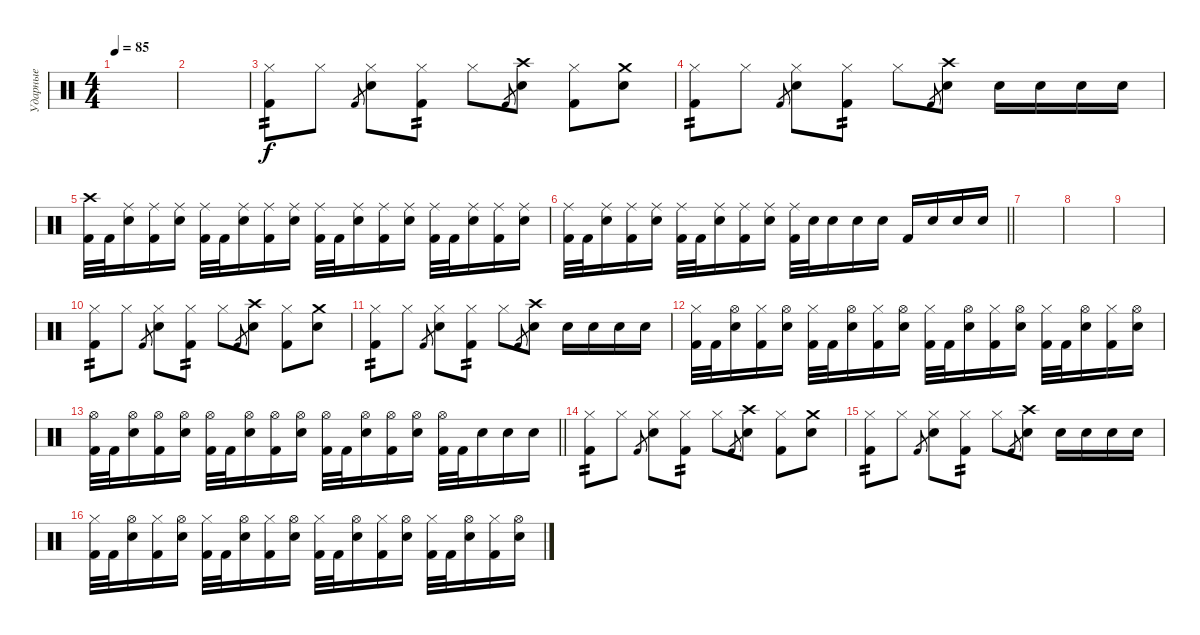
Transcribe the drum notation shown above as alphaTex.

\track ("Ударные" "Ударные") {instrument percussion}
\staff {score}
\articulation defaults
\ts (4 4)
\tempo 85
\clef neutral
\ks c
|
|
("Kick (hit) 2" "Hi-Hat (closed)").8{tp 2} "Hi-Hat (closed)".8 "Kick (hit) 2".8{gr} ("Electric Snare (hit)" "Hi-Hat (closed)").8 ("Kick (hit) 2" "Hi-Hat (closed)").8{tp 2} "Hi-Hat (closed)".8 "Kick (hit) 2".8{gr} ("Electric Snare (hit)" "Crash high (hit)").8 ("Kick (hit) 2" "Hi-Hat (closed)").8 ("Electric Snare (hit)" "Crash medium (hit)").8 |
("Kick (hit) 2" "Hi-Hat (closed)").8{tp 2} "Hi-Hat (closed)".8 "Kick (hit) 2".8{gr} ("Electric Snare (hit)" "Hi-Hat (closed)").8 ("Kick (hit) 2" "Hi-Hat (closed)").8{tp 2} "Hi-Hat (closed)".8 "Kick (hit) 2".8{gr} ("Electric Snare (hit)" "Crash high (hit)").8 "Electric Snare (hit)".16 "Electric Snare (hit)".16 "Electric Snare (hit)".16 "Electric Snare (hit)".16 |
("Kick (hit) 2" "Crash high (hit)").32 "Kick (hit) 2".32 ("Electric Snare (hit)" "Ride (middle)").16 ("Kick (hit) 2" "Ride (middle)").16 ("Electric Snare (hit)" "Ride (middle)").16 ("Kick (hit) 2" "Ride (middle)").32 "Kick (hit) 2".32 ("Electric Snare (hit)" "Ride (middle)").16 ("Kick (hit) 2" "Ride (middle)").16 ("Electric Snare (hit)" "Ride (middle)").16 ("Kick (hit) 2" "Ride (middle)").32 "Kick (hit) 2".32 ("Electric Snare (hit)" "Ride (middle)").16 ("Kick (hit) 2" "Ride (middle)").16 ("Electric Snare (hit)" "Ride (middle)").16 ("Kick (hit) 2" "Ride (middle)").32 "Kick (hit) 2".32 ("Electric Snare (hit)" "Ride (middle)").16 ("Kick (hit) 2" "Ride (middle)").16 ("Electric Snare (hit)" "Ride (middle)").16 |
\barLineRight lightlight
("Kick (hit) 2" "Ride (middle)").32 "Kick (hit) 2".32 ("Electric Snare (hit)" "Ride (middle)").16 ("Kick (hit) 2" "Ride (middle)").16 ("Electric Snare (hit)" "Ride (middle)").16 ("Kick (hit) 2" "Ride (middle)").32 "Kick (hit) 2".32 ("Electric Snare (hit)" "Ride (middle)").16 ("Kick (hit) 2" "Ride (middle)").16 ("Electric Snare (hit)" "Ride (middle)").16 ("Kick (hit) 2" "Ride (middle)").32 "Electric Snare (hit)".32 "Electric Snare (hit)".16 "Electric Snare (hit)".16 "Electric Snare (hit)".16 "Kick (hit) 2".16 "Electric Snare (hit)".16 "Electric Snare (hit)".16 "Electric Snare (hit)".16 |
|
|
|
("Kick (hit) 2" "Hi-Hat (closed)").8{tp 2} "Hi-Hat (closed)".8 "Kick (hit) 2".8{gr} ("Electric Snare (hit)" "Hi-Hat (closed)").8 ("Kick (hit) 2" "Hi-Hat (closed)").8{tp 2} "Hi-Hat (closed)".8 "Kick (hit) 2".8{gr} ("Electric Snare (hit)" "Crash high (hit)").8 ("Kick (hit) 2" "Hi-Hat (closed)").8 ("Electric Snare (hit)" "Crash medium (hit)").8 |
("Kick (hit) 2" "Hi-Hat (closed)").8{tp 2} "Hi-Hat (closed)".8 "Kick (hit) 2".8{gr} ("Electric Snare (hit)" "Hi-Hat (closed)").8 ("Kick (hit) 2" "Hi-Hat (closed)").8{tp 2} "Hi-Hat (closed)".8 "Kick (hit) 2".8{gr} ("Electric Snare (hit)" "Crash high (hit)").8 "Electric Snare (hit)".16 "Electric Snare (hit)".16 "Electric Snare (hit)".16 "Electric Snare (hit)".16 |
("Kick (hit) 2" "Hi-Hat (closed)").32 "Kick (hit) 2".32 ("Electric Snare (hit)" "Hi-Hat (open)").16 ("Kick (hit) 2" "Hi-Hat (closed)").16 ("Electric Snare (hit)" "Hi-Hat (open)").16 ("Kick (hit) 2" "Hi-Hat (closed)").32 "Kick (hit) 2".32 ("Electric Snare (hit)" "Hi-Hat (open)").16 ("Kick (hit) 2" "Hi-Hat (closed)").16 ("Electric Snare (hit)" "Hi-Hat (open)").16 ("Kick (hit) 2" "Hi-Hat (closed)").32 "Kick (hit) 2".32 ("Electric Snare (hit)" "Hi-Hat (open)").16 ("Kick (hit) 2" "Hi-Hat (closed)").16 ("Electric Snare (hit)" "Hi-Hat (open)").16 ("Kick (hit) 2" "Hi-Hat (closed)").32 "Kick (hit) 2".32 ("Electric Snare (hit)" "Hi-Hat (open)").16 ("Kick (hit) 2" "Hi-Hat (closed)").16 ("Electric Snare (hit)" "Hi-Hat (open)").16 |
\barLineRight lightlight
("Kick (hit) 2" "Hi-Hat (open)").32 "Kick (hit) 2".32 ("Electric Snare (hit)" "Hi-Hat (open)").16 ("Kick (hit) 2" "Hi-Hat (open)").16 ("Electric Snare (hit)" "Hi-Hat (open)").16 ("Kick (hit) 2" "Hi-Hat (open)").32 "Kick (hit) 2".32 ("Electric Snare (hit)" "Hi-Hat (open)").16 ("Kick (hit) 2" "Hi-Hat (open)").16 ("Electric Snare (hit)" "Hi-Hat (open)").16 ("Kick (hit) 2" "Hi-Hat (open)").32 "Kick (hit) 2".32 ("Electric Snare (hit)" "Hi-Hat (open)").16 ("Kick (hit) 2" "Hi-Hat (open)").16 ("Electric Snare (hit)" "Hi-Hat (open)").16 ("Kick (hit) 2" "Hi-Hat (open)").32 "Kick (hit) 2".32 "Electric Snare (hit)".16 "Electric Snare (hit)".16 "Electric Snare (hit)".16 |
("Kick (hit) 2" "Hi-Hat (closed)").8{tp 2} "Hi-Hat (closed)".8 "Kick (hit) 2".8{gr} ("Electric Snare (hit)" "Hi-Hat (closed)").8 ("Kick (hit) 2" "Hi-Hat (closed)").8{tp 2} "Hi-Hat (closed)".8 "Kick (hit) 2".8{gr} ("Electric Snare (hit)" "Crash high (hit)").8 ("Kick (hit) 2" "Hi-Hat (closed)").8 ("Electric Snare (hit)" "Crash medium (hit)").8 |
("Kick (hit) 2" "Hi-Hat (closed)").8{tp 2} "Hi-Hat (closed)".8 "Kick (hit) 2".8{gr} ("Electric Snare (hit)" "Hi-Hat (closed)").8 ("Kick (hit) 2" "Hi-Hat (closed)").8{tp 2} "Hi-Hat (closed)".8 "Kick (hit) 2".8{gr} ("Electric Snare (hit)" "Crash high (hit)").8 "Electric Snare (hit)".16 "Electric Snare (hit)".16 "Electric Snare (hit)".16 "Electric Snare (hit)".16 |
("Kick (hit) 2" "Hi-Hat (closed)").32 "Kick (hit) 2".32 ("Electric Snare (hit)" "Hi-Hat (open)").16 ("Kick (hit) 2" "Hi-Hat (closed)").16 ("Electric Snare (hit)" "Hi-Hat (open)").16 ("Kick (hit) 2" "Hi-Hat (closed)").32 "Kick (hit) 2".32 ("Electric Snare (hit)" "Hi-Hat (open)").16 ("Kick (hit) 2" "Hi-Hat (closed)").16 ("Electric Snare (hit)" "Hi-Hat (open)").16 ("Kick (hit) 2" "Hi-Hat (closed)").32 "Kick (hit) 2".32 ("Electric Snare (hit)" "Hi-Hat (open)").16 ("Kick (hit) 2" "Hi-Hat (closed)").16 ("Electric Snare (hit)" "Hi-Hat (open)").16 ("Kick (hit) 2" "Hi-Hat (closed)").32 "Kick (hit) 2".32 ("Electric Snare (hit)" "Hi-Hat (open)").16 ("Kick (hit) 2" "Hi-Hat (closed)").16 ("Electric Snare (hit)" "Hi-Hat (open)").16
